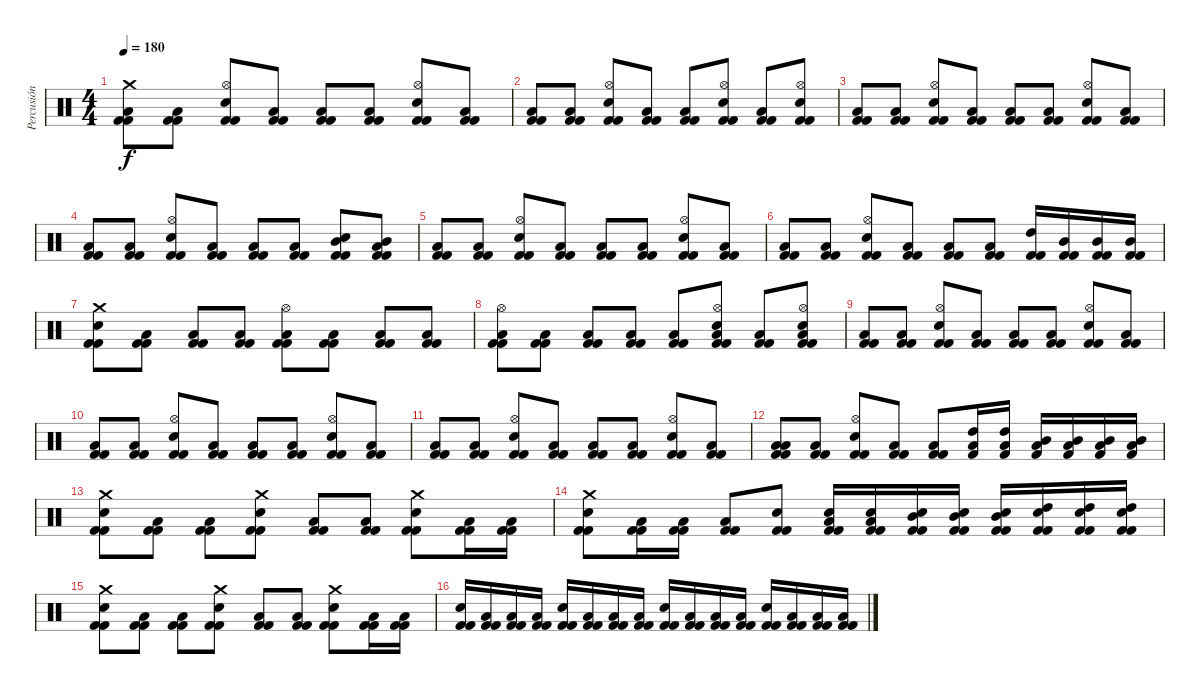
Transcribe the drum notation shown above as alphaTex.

\track ("Percusión" "Percusión") {instrument percussion}
\staff {score}
\articulation defaults
\ts (4 4)
\tempo 180
\clef neutral
\ks c
("Crash medium (hit)" "Kick (hit) 2" "Kick (hit) 2" "Low Floor Tom (hit)").8{dy f} ("Kick (hit) 2" "Kick (hit) 2" "Low Floor Tom (hit)").8 ("Hi-Hat (open)" "Kick (hit) 2" "Kick (hit) 2" "Snare (hit) 2").8 ("Kick (hit) 2" "Kick (hit) 2" "Low Floor Tom (hit)").8 ("Kick (hit) 2" "Kick (hit) 2" "Low Floor Tom (hit)").8 ("Kick (hit) 2" "Kick (hit) 2" "Low Floor Tom (hit)").8 ("Hi-Hat (open)" "Kick (hit) 2" "Kick (hit) 2" "Snare (hit) 2").8 ("Kick (hit) 2" "Kick (hit) 2" "Low Floor Tom (hit)").8 |
("Kick (hit) 2" "Kick (hit) 2" "Low Floor Tom (hit)").8 ("Kick (hit) 2" "Kick (hit) 2" "Low Floor Tom (hit)").8 ("Hi-Hat (open)" "Kick (hit) 2" "Kick (hit) 2" "Snare (hit) 2").8 ("Kick (hit) 2" "Kick (hit) 2" "Low Floor Tom (hit)").8 ("Kick (hit) 2" "Kick (hit) 2" "Low Floor Tom (hit)").8 ("Hi-Hat (open)" "Kick (hit) 2" "Kick (hit) 2" "Snare (hit) 2").8 ("Kick (hit) 2" "Kick (hit) 2" "Low Floor Tom (hit)").8 ("Hi-Hat (open)" "Kick (hit) 2" "Kick (hit) 2" "Snare (hit) 2").8 |
("Kick (hit) 2" "Kick (hit) 2" "Low Floor Tom (hit)").8 ("Kick (hit) 2" "Kick (hit) 2" "Low Floor Tom (hit)").8 ("Hi-Hat (open)" "Kick (hit) 2" "Kick (hit) 2" "Snare (hit) 2").8 ("Kick (hit) 2" "Kick (hit) 2" "Low Floor Tom (hit)").8 ("Kick (hit) 2" "Kick (hit) 2" "Low Floor Tom (hit)").8 ("Kick (hit) 2" "Kick (hit) 2" "Low Floor Tom (hit)").8 ("Hi-Hat (open)" "Kick (hit) 2" "Kick (hit) 2" "Snare (hit) 2").8 ("Kick (hit) 2" "Kick (hit) 2" "Low Floor Tom (hit)").8 |
("Kick (hit) 2" "Kick (hit) 2" "Low Floor Tom (hit)").8 ("Kick (hit) 2" "Kick (hit) 2" "Low Floor Tom (hit)").8 ("Hi-Hat (open)" "Kick (hit) 2" "Kick (hit) 2" "Snare (hit) 2").8 ("Kick (hit) 2" "Kick (hit) 2" "Low Floor Tom (hit)").8 ("Kick (hit) 2" "Kick (hit) 2" "Low Floor Tom (hit)").8 ("Kick (hit) 2" "Kick (hit) 2" "Low Floor Tom (hit)").8 ("Mid Tom (hit)" "Kick (hit) 2" "Kick (hit) 2" "Snare (hit) 2").8 ("Mid Tom (hit)" "Kick (hit) 2" "Kick (hit) 2" "Low Floor Tom (hit)").8 |
("Kick (hit) 2" "Kick (hit) 2" "Low Floor Tom (hit)").8 ("Kick (hit) 2" "Kick (hit) 2" "Low Floor Tom (hit)").8 ("Hi-Hat (open)" "Kick (hit) 2" "Kick (hit) 2" "Snare (hit) 2").8 ("Kick (hit) 2" "Kick (hit) 2" "Low Floor Tom (hit)").8 ("Kick (hit) 2" "Kick (hit) 2" "Low Floor Tom (hit)").8 ("Kick (hit) 2" "Kick (hit) 2" "Low Floor Tom (hit)").8 ("Hi-Hat (open)" "Kick (hit) 2" "Kick (hit) 2" "Snare (hit) 2").8 ("Kick (hit) 2" "Kick (hit) 2" "Low Floor Tom (hit)").8 |
("Kick (hit) 2" "Kick (hit) 2" "Low Floor Tom (hit)").8 ("Kick (hit) 2" "Kick (hit) 2" "Low Floor Tom (hit)").8 ("Hi-Hat (open)" "Kick (hit) 2" "Kick (hit) 2" "Snare (hit) 2").8 ("Kick (hit) 2" "Kick (hit) 2" "Low Floor Tom (hit)").8 ("Kick (hit) 2" "Kick (hit) 2" "Low Floor Tom (hit)").8 ("Kick (hit) 2" "Kick (hit) 2" "Low Floor Tom (hit)").8 ("Kick (hit) 2" "Kick (hit) 2" "High Tom (hit)").16 ("Kick (hit) 2" "Kick (hit) 2" "Mid Tom (hit)").16 ("Kick (hit) 2" "Kick (hit) 2" "Mid Tom (hit)").16 ("Kick (hit) 2" "Kick (hit) 2" "Mid Tom (hit)").16 |
("Crash medium (hit)" "Kick (hit) 2" "Kick (hit) 2" "Snare (hit) 2").8 ("Kick (hit) 2" "Kick (hit) 2" "Low Floor Tom (hit)").8 ("Kick (hit) 2" "Kick (hit) 2" "Low Floor Tom (hit)").8 ("Kick (hit) 2" "Kick (hit) 2" "Low Floor Tom (hit)").8 ("Hi-Hat (open)" "Kick (hit) 2" "Kick (hit) 2" "Low Floor Tom (hit)").8 ("Kick (hit) 2" "Kick (hit) 2" "Low Floor Tom (hit)").8 ("Kick (hit) 2" "Kick (hit) 2" "Low Floor Tom (hit)").8 ("Kick (hit) 2" "Kick (hit) 2" "Low Floor Tom (hit)").8 |
("Hi-Hat (open)" "Kick (hit) 2" "Kick (hit) 2" "Low Floor Tom (hit)").8 ("Kick (hit) 2" "Kick (hit) 2" "Low Floor Tom (hit)").8 ("Kick (hit) 2" "Kick (hit) 2" "Low Floor Tom (hit)").8 ("Kick (hit) 2" "Kick (hit) 2" "Low Floor Tom (hit)").8 ("Kick (hit) 2" "Kick (hit) 2" "Low Floor Tom (hit)").8 ("Hi-Hat (open)" "Kick (hit) 2" "Kick (hit) 2" "Low Floor Tom (hit)" "Snare (hit) 2").8 ("Kick (hit) 2" "Kick (hit) 2" "Low Floor Tom (hit)").8 ("Hi-Hat (open)" "Kick (hit) 2" "Kick (hit) 2" "Low Floor Tom (hit)" "Snare (hit) 2").8 |
("Kick (hit) 2" "Kick (hit) 2" "Low Floor Tom (hit)").8 ("Kick (hit) 2" "Kick (hit) 2" "Low Floor Tom (hit)").8 ("Hi-Hat (open)" "Kick (hit) 2" "Kick (hit) 2" "Snare (hit) 2").8 ("Kick (hit) 2" "Kick (hit) 2" "Low Floor Tom (hit)").8 ("Kick (hit) 2" "Kick (hit) 2" "Low Floor Tom (hit)").8 ("Kick (hit) 2" "Kick (hit) 2" "Low Floor Tom (hit)").8 ("Hi-Hat (open)" "Kick (hit) 2" "Kick (hit) 2" "Snare (hit) 2").8 ("Kick (hit) 2" "Kick (hit) 2" "Low Floor Tom (hit)").8 |
("Kick (hit) 2" "Kick (hit) 2" "Low Floor Tom (hit)").8 ("Kick (hit) 2" "Kick (hit) 2" "Low Floor Tom (hit)").8 ("Hi-Hat (open)" "Kick (hit) 2" "Kick (hit) 2" "Snare (hit) 2").8 ("Kick (hit) 2" "Kick (hit) 2" "Low Floor Tom (hit)").8 ("Kick (hit) 2" "Kick (hit) 2" "Low Floor Tom (hit)").8 ("Kick (hit) 2" "Kick (hit) 2" "Low Floor Tom (hit)").8 ("Hi-Hat (open)" "Kick (hit) 2" "Kick (hit) 2" "Snare (hit) 2").8 ("Kick (hit) 2" "Kick (hit) 2" "Low Floor Tom (hit)").8 |
("Kick (hit) 2" "Kick (hit) 2" "Low Floor Tom (hit)").8 ("Kick (hit) 2" "Kick (hit) 2" "Low Floor Tom (hit)").8 ("Hi-Hat (open)" "Kick (hit) 2" "Kick (hit) 2" "Snare (hit) 2").8 ("Kick (hit) 2" "Kick (hit) 2" "Low Floor Tom (hit)").8 ("Kick (hit) 2" "Kick (hit) 2" "Low Floor Tom (hit)").8 ("Kick (hit) 2" "Kick (hit) 2" "Low Floor Tom (hit)").8 ("Hi-Hat (open)" "Kick (hit) 2" "Kick (hit) 2" "Snare (hit) 2").8 ("Kick (hit) 2" "Kick (hit) 2" "Low Floor Tom (hit)").8 |
("Low Floor Tom (hit)" "Kick (hit) 2" "Kick (hit) 2" "Low Floor Tom (hit)").8 ("Kick (hit) 2" "Kick (hit) 2" "Low Floor Tom (hit)").8 ("Hi-Hat (open)" "Kick (hit) 2" "Kick (hit) 2" "Snare (hit) 2").8 ("Kick (hit) 2" "Kick (hit) 2" "Low Floor Tom (hit)").8 ("Kick (hit) 2" "Kick (hit) 2" "Low Floor Tom (hit)").8 ("Low Floor Tom (hit)" "Kick (hit) 2" "High Tom (hit)").16 ("Low Floor Tom (hit)" "Kick (hit) 2" "High Tom (hit)").16 ("Low Floor Tom (hit)" "Kick (hit) 2" "Mid Tom (hit)").16 ("Low Floor Tom (hit)" "Kick (hit) 2" "Mid Tom (hit)").16 ("Low Floor Tom (hit)" "Kick (hit) 2" "Mid Tom (hit)").16 ("Low Floor Tom (hit)" "Kick (hit) 2" "Mid Tom (hit)").16 |
("Crash medium (hit)" "Kick (hit) 2" "Kick (hit) 2" "Snare (hit) 2").8 ("Kick (hit) 2" "Kick (hit) 2" "Low Floor Tom (hit)").8 ("Kick (hit) 2" "Kick (hit) 2" "Low Floor Tom (hit)").8 ("Crash medium (hit)" "Kick (hit) 2" "Kick (hit) 2" "Snare (hit) 2").8 ("Kick (hit) 2" "Kick (hit) 2" "Low Floor Tom (hit)").8 ("Kick (hit) 2" "Kick (hit) 2" "Low Floor Tom (hit)").8 ("Crash medium (hit)" "Kick (hit) 2" "Kick (hit) 2" "Snare (hit) 2").8 ("Kick (hit) 2" "Kick (hit) 2" "Low Floor Tom (hit)").16 ("Kick (hit) 2" "Kick (hit) 2" "Low Floor Tom (hit)").16 |
("Crash medium (hit)" "Kick (hit) 2" "Kick (hit) 2" "Snare (hit) 2").8 ("Kick (hit) 2" "Kick (hit) 2" "Low Floor Tom (hit)").16 ("Kick (hit) 2" "Kick (hit) 2" "Low Floor Tom (hit)").16 ("Kick (hit) 2" "Kick (hit) 2" "Low Floor Tom (hit)").8 ("Kick (hit) 2" "Kick (hit) 2" "Snare (hit) 2").8 ("Snare (hit) 2" "Kick (hit) 2" "Kick (hit) 2" "Low Tom (hit)").16 ("Snare (hit) 2" "Kick (hit) 2" "Kick (hit) 2" "Low Tom (hit)").16 ("Snare (hit) 2" "Kick (hit) 2" "Kick (hit) 2" "Mid Tom (hit)").16 ("Snare (hit) 2" "Kick (hit) 2" "Kick (hit) 2" "Mid Tom (hit)").16 ("Electric Snare (hit)" "Kick (hit) 2" "Kick (hit) 2" "Mid Tom (hit)").16 ("Electric Snare (hit)" "Kick (hit) 2" "Kick (hit) 2" "High Tom (hit)").16 ("Electric Snare (hit)" "Kick (hit) 2" "Kick (hit) 2" "High Tom (hit)").16 ("Electric Snare (hit)" "Kick (hit) 2" "Kick (hit) 2" "High Tom (hit)").16 |
("Crash medium (hit)" "Kick (hit) 2" "Kick (hit) 2" "Snare (hit) 2").8 ("Kick (hit) 2" "Kick (hit) 2" "Low Floor Tom (hit)").8 ("Kick (hit) 2" "Kick (hit) 2" "Low Floor Tom (hit)").8 ("Crash medium (hit)" "Kick (hit) 2" "Kick (hit) 2" "Snare (hit) 2").8 ("Kick (hit) 2" "Kick (hit) 2" "Low Floor Tom (hit)").8 ("Kick (hit) 2" "Kick (hit) 2" "Low Floor Tom (hit)").8 ("Crash medium (hit)" "Kick (hit) 2" "Kick (hit) 2" "Snare (hit) 2").8 ("Kick (hit) 2" "Kick (hit) 2" "Low Floor Tom (hit)").16 ("Kick (hit) 2" "Kick (hit) 2" "Low Floor Tom (hit)").16 |
("Kick (hit) 2" "Kick (hit) 2" "Snare (hit) 2").16 ("Kick (hit) 2" "Kick (hit) 2" "Low Floor Tom (hit)").16 ("Kick (hit) 2" "Kick (hit) 2" "Low Floor Tom (hit)").16 ("Kick (hit) 2" "Kick (hit) 2" "Low Floor Tom (hit)").16 ("Kick (hit) 2" "Kick (hit) 2" "Snare (hit) 2").16 ("Kick (hit) 2" "Kick (hit) 2" "Low Floor Tom (hit)").16 ("Kick (hit) 2" "Kick (hit) 2" "Low Floor Tom (hit)").16 ("Kick (hit) 2" "Kick (hit) 2" "Low Floor Tom (hit)").16 ("Kick (hit) 2" "Kick (hit) 2" "Snare (hit) 2").16 ("Kick (hit) 2" "Kick (hit) 2" "Low Floor Tom (hit)").16 ("Kick (hit) 2" "Kick (hit) 2" "Low Floor Tom (hit)").16 ("Kick (hit) 2" "Kick (hit) 2" "Low Floor Tom (hit)").16 ("Kick (hit) 2" "Kick (hit) 2" "Snare (hit) 2").16 ("Kick (hit) 2" "Kick (hit) 2" "Low Floor Tom (hit)").16 ("Kick (hit) 2" "Kick (hit) 2" "Low Floor Tom (hit)").16 ("Kick (hit) 2" "Kick (hit) 2" "Low Floor Tom (hit)").16
